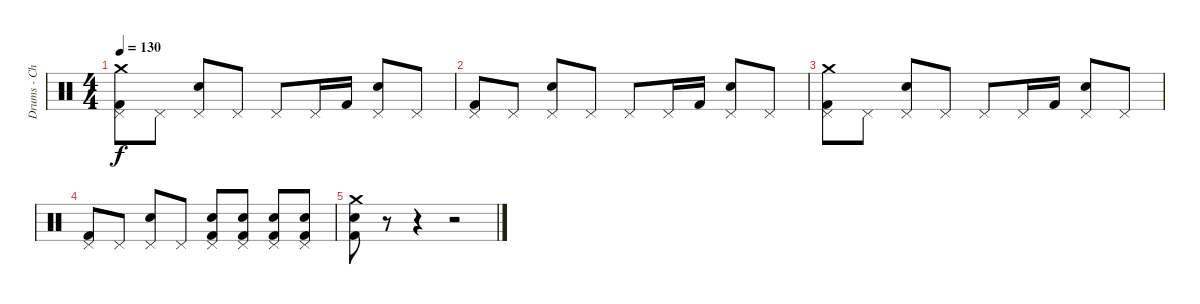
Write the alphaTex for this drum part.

\track ("Drums - Christoph Schneider" "Drums - Ch") {instrument percussion}
\staff {score}
\articulation defaults
\ts (4 4)
\tempo 130
\clef neutral
\ks c
("Crash medium (hit)" "Pedal Hi-Hat (hit)" "Kick (hit) 2").8{dy f} "Pedal Hi-Hat (hit)".8 ("Pedal Hi-Hat (hit)" "Electric Snare (hit)").8 "Pedal Hi-Hat (hit)".8 "Pedal Hi-Hat (hit)".8 "Pedal Hi-Hat (hit)".16 "Kick (hit) 2".16 ("Pedal Hi-Hat (hit)" "Electric Snare (hit)").8 "Pedal Hi-Hat (hit)".8 |
("Pedal Hi-Hat (hit)" "Kick (hit) 2").8 "Pedal Hi-Hat (hit)".8 ("Pedal Hi-Hat (hit)" "Electric Snare (hit)").8 "Pedal Hi-Hat (hit)".8 "Pedal Hi-Hat (hit)".8 "Pedal Hi-Hat (hit)".16 "Kick (hit) 2".16 ("Pedal Hi-Hat (hit)" "Electric Snare (hit)").8 "Pedal Hi-Hat (hit)".8 |
("Crash medium (hit)" "Pedal Hi-Hat (hit)" "Kick (hit) 2").8 "Pedal Hi-Hat (hit)".8 ("Pedal Hi-Hat (hit)" "Electric Snare (hit)").8 "Pedal Hi-Hat (hit)".8 "Pedal Hi-Hat (hit)".8 "Pedal Hi-Hat (hit)".16 "Kick (hit) 2".16 ("Pedal Hi-Hat (hit)" "Electric Snare (hit)").8 "Pedal Hi-Hat (hit)".8 |
("Pedal Hi-Hat (hit)" "Kick (hit) 2").8 "Pedal Hi-Hat (hit)".8 ("Pedal Hi-Hat (hit)" "Electric Snare (hit)").8 "Pedal Hi-Hat (hit)".8 ("Pedal Hi-Hat (hit)" "Electric Snare (hit)" "Kick (hit) 2").8 ("Pedal Hi-Hat (hit)" "Electric Snare (hit)" "Kick (hit) 2").8 ("Pedal Hi-Hat (hit)" "Electric Snare (hit)" "Kick (hit) 2").8 ("Pedal Hi-Hat (hit)" "Electric Snare (hit)" "Kick (hit) 2").8 |
("Crash medium (hit)" "Electric Snare (hit)" "Kick (hit) 2").8 r.8 r.4 r.2
